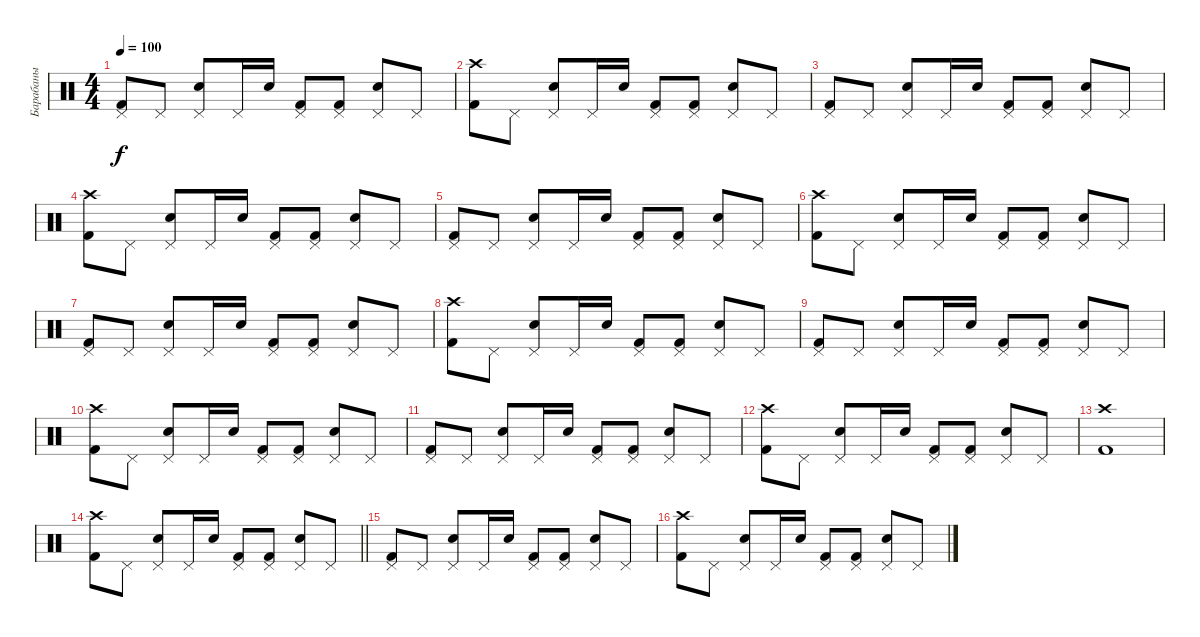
\track ("Барабаны" "Барабаны") {instrument percussion}
\staff {score}
\articulation defaults
\ts (4 4)
\tempo 100
\clef neutral
\ks c
("Pedal Hi-Hat (hit)" "Kick (hit) 2").8{dy f} "Pedal Hi-Hat (hit)".8 ("Pedal Hi-Hat (hit)" "Electric Snare (hit)").8 "Pedal Hi-Hat (hit)".16 "Electric Snare (hit)".16 ("Pedal Hi-Hat (hit)" "Kick (hit) 2").8 ("Pedal Hi-Hat (hit)" "Kick (hit) 2").8 ("Pedal Hi-Hat (hit)" "Electric Snare (hit)").8 "Pedal Hi-Hat (hit)".8 |
("Crash high (hit)" "Kick (hit) 2").8 "Pedal Hi-Hat (hit)".8 ("Pedal Hi-Hat (hit)" "Electric Snare (hit)").8 "Pedal Hi-Hat (hit)".16 "Electric Snare (hit)".16 ("Pedal Hi-Hat (hit)" "Kick (hit) 2").8 ("Pedal Hi-Hat (hit)" "Kick (hit) 2").8 ("Pedal Hi-Hat (hit)" "Electric Snare (hit)").8 "Pedal Hi-Hat (hit)".8 |
("Pedal Hi-Hat (hit)" "Kick (hit) 2").8 "Pedal Hi-Hat (hit)".8 ("Pedal Hi-Hat (hit)" "Electric Snare (hit)").8 "Pedal Hi-Hat (hit)".16 "Electric Snare (hit)".16 ("Pedal Hi-Hat (hit)" "Kick (hit) 2").8 ("Pedal Hi-Hat (hit)" "Kick (hit) 2").8 ("Pedal Hi-Hat (hit)" "Electric Snare (hit)").8 "Pedal Hi-Hat (hit)".8 |
("Crash high (hit)" "Kick (hit) 2").8 "Pedal Hi-Hat (hit)".8 ("Pedal Hi-Hat (hit)" "Electric Snare (hit)").8 "Pedal Hi-Hat (hit)".16 "Electric Snare (hit)".16 ("Pedal Hi-Hat (hit)" "Kick (hit) 2").8 ("Pedal Hi-Hat (hit)" "Kick (hit) 2").8 ("Pedal Hi-Hat (hit)" "Electric Snare (hit)").8 "Pedal Hi-Hat (hit)".8 |
("Pedal Hi-Hat (hit)" "Kick (hit) 2").8 "Pedal Hi-Hat (hit)".8 ("Pedal Hi-Hat (hit)" "Electric Snare (hit)").8 "Pedal Hi-Hat (hit)".16 "Electric Snare (hit)".16 ("Pedal Hi-Hat (hit)" "Kick (hit) 2").8 ("Pedal Hi-Hat (hit)" "Kick (hit) 2").8 ("Pedal Hi-Hat (hit)" "Electric Snare (hit)").8 "Pedal Hi-Hat (hit)".8 |
("Crash high (hit)" "Kick (hit) 2").8 "Pedal Hi-Hat (hit)".8 ("Pedal Hi-Hat (hit)" "Electric Snare (hit)").8 "Pedal Hi-Hat (hit)".16 "Electric Snare (hit)".16 ("Pedal Hi-Hat (hit)" "Kick (hit) 2").8 ("Pedal Hi-Hat (hit)" "Kick (hit) 2").8 ("Pedal Hi-Hat (hit)" "Electric Snare (hit)").8 "Pedal Hi-Hat (hit)".8 |
("Pedal Hi-Hat (hit)" "Kick (hit) 2").8 "Pedal Hi-Hat (hit)".8 ("Pedal Hi-Hat (hit)" "Electric Snare (hit)").8 "Pedal Hi-Hat (hit)".16 "Electric Snare (hit)".16 ("Pedal Hi-Hat (hit)" "Kick (hit) 2").8 ("Pedal Hi-Hat (hit)" "Kick (hit) 2").8 ("Pedal Hi-Hat (hit)" "Electric Snare (hit)").8 "Pedal Hi-Hat (hit)".8 |
("Crash high (hit)" "Kick (hit) 2").8 "Pedal Hi-Hat (hit)".8 ("Pedal Hi-Hat (hit)" "Electric Snare (hit)").8 "Pedal Hi-Hat (hit)".16 "Electric Snare (hit)".16 ("Pedal Hi-Hat (hit)" "Kick (hit) 2").8 ("Pedal Hi-Hat (hit)" "Kick (hit) 2").8 ("Pedal Hi-Hat (hit)" "Electric Snare (hit)").8 "Pedal Hi-Hat (hit)".8 |
("Pedal Hi-Hat (hit)" "Kick (hit) 2").8 "Pedal Hi-Hat (hit)".8 ("Pedal Hi-Hat (hit)" "Electric Snare (hit)").8 "Pedal Hi-Hat (hit)".16 "Electric Snare (hit)".16 ("Pedal Hi-Hat (hit)" "Kick (hit) 2").8 ("Pedal Hi-Hat (hit)" "Kick (hit) 2").8 ("Pedal Hi-Hat (hit)" "Electric Snare (hit)").8 "Pedal Hi-Hat (hit)".8 |
("Crash high (hit)" "Kick (hit) 2").8 "Pedal Hi-Hat (hit)".8 ("Pedal Hi-Hat (hit)" "Electric Snare (hit)").8 "Pedal Hi-Hat (hit)".16 "Electric Snare (hit)".16 ("Pedal Hi-Hat (hit)" "Kick (hit) 2").8 ("Pedal Hi-Hat (hit)" "Kick (hit) 2").8 ("Pedal Hi-Hat (hit)" "Electric Snare (hit)").8 "Pedal Hi-Hat (hit)".8 |
("Pedal Hi-Hat (hit)" "Kick (hit) 2").8 "Pedal Hi-Hat (hit)".8 ("Pedal Hi-Hat (hit)" "Electric Snare (hit)").8 "Pedal Hi-Hat (hit)".16 "Electric Snare (hit)".16 ("Pedal Hi-Hat (hit)" "Kick (hit) 2").8 ("Pedal Hi-Hat (hit)" "Kick (hit) 2").8 ("Pedal Hi-Hat (hit)" "Electric Snare (hit)").8 "Pedal Hi-Hat (hit)".8 |
("Crash high (hit)" "Kick (hit) 2").8 "Pedal Hi-Hat (hit)".8 ("Pedal Hi-Hat (hit)" "Electric Snare (hit)").8 "Pedal Hi-Hat (hit)".16 "Electric Snare (hit)".16 ("Pedal Hi-Hat (hit)" "Kick (hit) 2").8 ("Pedal Hi-Hat (hit)" "Kick (hit) 2").8 ("Pedal Hi-Hat (hit)" "Electric Snare (hit)").8 "Pedal Hi-Hat (hit)".8 |
("Crash high (hit)" "Kick (hit) 2").1 |
\barLineRight lightlight
("Crash high (hit)" "Kick (hit) 2").8 "Pedal Hi-Hat (hit)".8 ("Pedal Hi-Hat (hit)" "Electric Snare (hit)").8 "Pedal Hi-Hat (hit)".16 "Electric Snare (hit)".16 ("Pedal Hi-Hat (hit)" "Kick (hit) 2").8 ("Pedal Hi-Hat (hit)" "Kick (hit) 2").8 ("Pedal Hi-Hat (hit)" "Electric Snare (hit)").8 "Pedal Hi-Hat (hit)".8 |
("Pedal Hi-Hat (hit)" "Kick (hit) 2").8 "Pedal Hi-Hat (hit)".8 ("Pedal Hi-Hat (hit)" "Electric Snare (hit)").8 "Pedal Hi-Hat (hit)".16 "Electric Snare (hit)".16 ("Pedal Hi-Hat (hit)" "Kick (hit) 2").8 ("Pedal Hi-Hat (hit)" "Kick (hit) 2").8 ("Pedal Hi-Hat (hit)" "Electric Snare (hit)").8 "Pedal Hi-Hat (hit)".8 |
("Crash high (hit)" "Kick (hit) 2").8 "Pedal Hi-Hat (hit)".8 ("Pedal Hi-Hat (hit)" "Electric Snare (hit)").8 "Pedal Hi-Hat (hit)".16 "Electric Snare (hit)".16 ("Pedal Hi-Hat (hit)" "Kick (hit) 2").8 ("Pedal Hi-Hat (hit)" "Kick (hit) 2").8 ("Pedal Hi-Hat (hit)" "Electric Snare (hit)").8 "Pedal Hi-Hat (hit)".8
